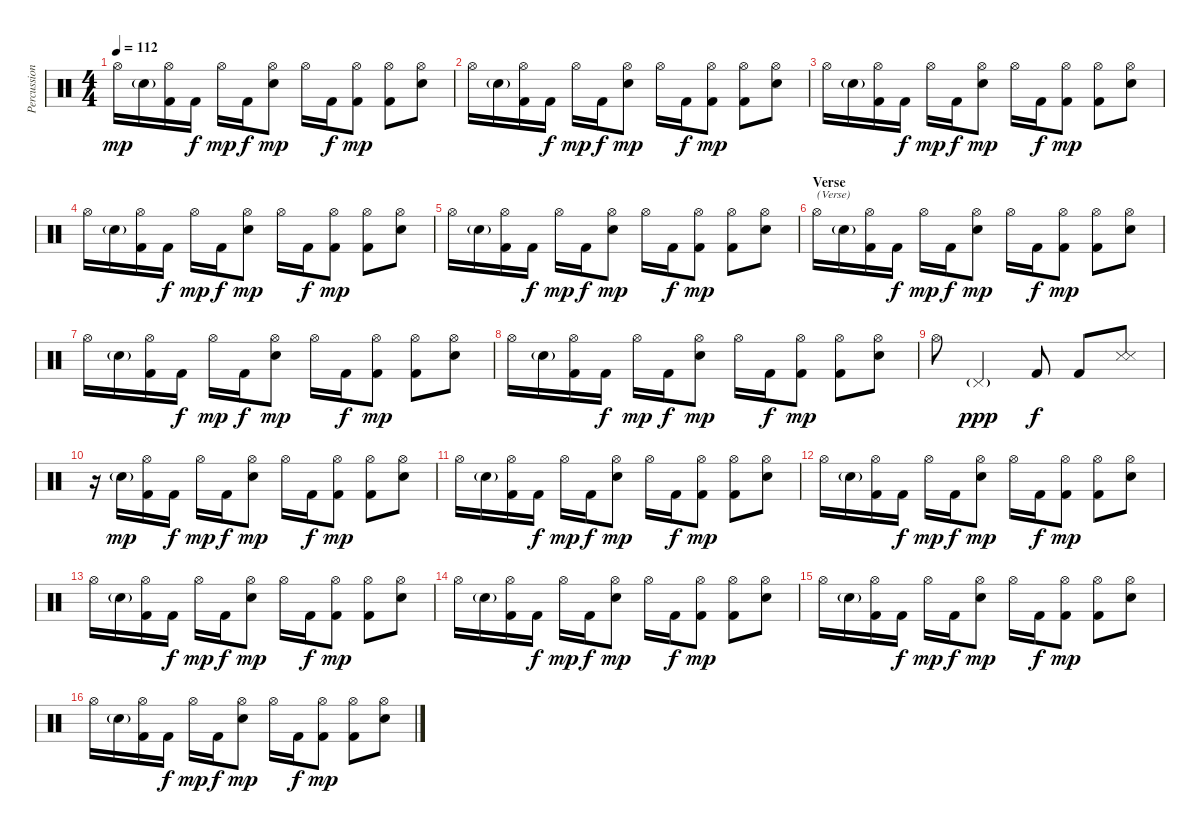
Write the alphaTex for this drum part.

\track ("Percussion" "Percussion") {instrument percussion}
\staff {score}
\articulation defaults
\ts (4 4)
\tempo 112
\clef neutral
\ks c "Hi-Hat (open)".16{dy mp} "Electric Snare (hit)"{g}.16
("Hi-Hat (open)" "Kick (hit) 2").16 "Kick (hit) 2".16{dy f} "Hi-Hat (open)".16{dy mp} "Kick (hit) 2".16{dy f} ("Hi-Hat (open)" "Electric Snare (hit)").8{dy mp} "Hi-Hat (open)".16 "Kick (hit) 2".16{dy f} ("Hi-Hat (open)" "Kick (hit) 2").8{dy mp} ("Hi-Hat (open)" "Kick (hit) 2").8 ("Hi-Hat (open)" "Electric Snare (hit)").8 |
"Hi-Hat (open)".16 "Electric Snare (hit)"{g}.16 ("Hi-Hat (open)" "Kick (hit) 2").16 "Kick (hit) 2".16{dy f} "Hi-Hat (open)".16{dy mp} "Kick (hit) 2".16{dy f} ("Hi-Hat (open)" "Electric Snare (hit)").8{dy mp} "Hi-Hat (open)".16 "Kick (hit) 2".16{dy f} ("Hi-Hat (open)" "Kick (hit) 2").8{dy mp} ("Hi-Hat (open)" "Kick (hit) 2").8 ("Hi-Hat (open)" "Electric Snare (hit)").8 |
"Hi-Hat (open)".16 "Electric Snare (hit)"{g}.16 ("Hi-Hat (open)" "Kick (hit) 2").16 "Kick (hit) 2".16{dy f} "Hi-Hat (open)".16{dy mp} "Kick (hit) 2".16{dy f} ("Hi-Hat (open)" "Electric Snare (hit)").8{dy mp} "Hi-Hat (open)".16 "Kick (hit) 2".16{dy f} ("Hi-Hat (open)" "Kick (hit) 2").8{dy mp} ("Hi-Hat (open)" "Kick (hit) 2").8 ("Hi-Hat (open)" "Electric Snare (hit)").8 |
"Hi-Hat (open)".16 "Electric Snare (hit)"{g}.16 ("Hi-Hat (open)" "Kick (hit) 2").16 "Kick (hit) 2".16{dy f} "Hi-Hat (open)".16{dy mp} "Kick (hit) 2".16{dy f} ("Hi-Hat (open)" "Electric Snare (hit)").8{dy mp} "Hi-Hat (open)".16 "Kick (hit) 2".16{dy f} ("Hi-Hat (open)" "Kick (hit) 2").8{dy mp} ("Hi-Hat (open)" "Kick (hit) 2").8 ("Hi-Hat (open)" "Electric Snare (hit)").8 |
"Hi-Hat (open)".16 "Electric Snare (hit)"{g}.16 ("Hi-Hat (open)" "Kick (hit) 2").16 "Kick (hit) 2".16{dy f} "Hi-Hat (open)".16{dy mp} "Kick (hit) 2".16{dy f} ("Hi-Hat (open)" "Electric Snare (hit)").8{dy mp} "Hi-Hat (open)".16 "Kick (hit) 2".16{dy f} ("Hi-Hat (open)" "Kick (hit) 2").8{dy mp} ("Hi-Hat (open)" "Kick (hit) 2").8 ("Hi-Hat (open)" "Electric Snare (hit)").8 |
\section ("" "Verse")
"Hi-Hat (open)".16{txt "(Verse)"} "Electric Snare (hit)"{g}.16 ("Hi-Hat (open)" "Kick (hit) 2").16 "Kick (hit) 2".16{dy f} "Hi-Hat (open)".16{dy mp} "Kick (hit) 2".16{dy f} ("Hi-Hat (open)" "Electric Snare (hit)").8{dy mp} "Hi-Hat (open)".16 "Kick (hit) 2".16{dy f} ("Hi-Hat (open)" "Kick (hit) 2").8{dy mp} ("Hi-Hat (open)" "Kick (hit) 2").8 ("Hi-Hat (open)" "Electric Snare (hit)").8 |
"Hi-Hat (open)".16 "Electric Snare (hit)"{g}.16 ("Hi-Hat (open)" "Kick (hit) 2").16 "Kick (hit) 2".16{dy f} "Hi-Hat (open)".16{dy mp} "Kick (hit) 2".16{dy f} ("Hi-Hat (open)" "Electric Snare (hit)").8{dy mp} "Hi-Hat (open)".16 "Kick (hit) 2".16{dy f} ("Hi-Hat (open)" "Kick (hit) 2").8{dy mp} ("Hi-Hat (open)" "Kick (hit) 2").8 ("Hi-Hat (open)" "Electric Snare (hit)").8 |
"Hi-Hat (open)".16 "Electric Snare (hit)"{g}.16 ("Hi-Hat (open)" "Kick (hit) 2").16 "Kick (hit) 2".16{dy f} "Hi-Hat (open)".16{dy mp} "Kick (hit) 2".16{dy f} ("Hi-Hat (open)" "Electric Snare (hit)").8{dy mp} "Hi-Hat (open)".16 "Kick (hit) 2".16{dy f} ("Hi-Hat (open)" "Kick (hit) 2").8{dy mp} ("Hi-Hat (open)" "Kick (hit) 2").8 ("Hi-Hat (open)" "Electric Snare (hit)").8 |
"Hi-Hat (open)".8 "Pedal Hi-Hat (hit)"{g}.2{dy ppp} "Kick (hit) 2".8{dy f} "Kick (hit) 2".8 ("Snare (side stick) 3" "Snare (side stick) 3").8{bd 60} |
r.16 "Electric Snare (hit)"{g}.16{dy mp} ("Hi-Hat (open)" "Kick (hit) 2").16 "Kick (hit) 2".16{dy f} "Hi-Hat (open)".16{dy mp} "Kick (hit) 2".16{dy f} ("Hi-Hat (open)" "Electric Snare (hit)").8{dy mp} "Hi-Hat (open)".16 "Kick (hit) 2".16{dy f} ("Hi-Hat (open)" "Kick (hit) 2").8{dy mp} ("Hi-Hat (open)" "Kick (hit) 2").8 ("Hi-Hat (open)" "Electric Snare (hit)").8 |
"Hi-Hat (open)".16 "Electric Snare (hit)"{g}.16 ("Hi-Hat (open)" "Kick (hit) 2").16 "Kick (hit) 2".16{dy f} "Hi-Hat (open)".16{dy mp} "Kick (hit) 2".16{dy f} ("Hi-Hat (open)" "Electric Snare (hit)").8{dy mp} "Hi-Hat (open)".16 "Kick (hit) 2".16{dy f} ("Hi-Hat (open)" "Kick (hit) 2").8{dy mp} ("Hi-Hat (open)" "Kick (hit) 2").8 ("Hi-Hat (open)" "Electric Snare (hit)").8 |
"Hi-Hat (open)".16 "Electric Snare (hit)"{g}.16 ("Hi-Hat (open)" "Kick (hit) 2").16 "Kick (hit) 2".16{dy f} "Hi-Hat (open)".16{dy mp} "Kick (hit) 2".16{dy f} ("Hi-Hat (open)" "Electric Snare (hit)").8{dy mp} "Hi-Hat (open)".16 "Kick (hit) 2".16{dy f} ("Hi-Hat (open)" "Kick (hit) 2").8{dy mp} ("Hi-Hat (open)" "Kick (hit) 2").8 ("Hi-Hat (open)" "Electric Snare (hit)").8 |
"Hi-Hat (open)".16 "Electric Snare (hit)"{g}.16 ("Hi-Hat (open)" "Kick (hit) 2").16 "Kick (hit) 2".16{dy f} "Hi-Hat (open)".16{dy mp} "Kick (hit) 2".16{dy f} ("Hi-Hat (open)" "Electric Snare (hit)").8{dy mp} "Hi-Hat (open)".16 "Kick (hit) 2".16{dy f} ("Hi-Hat (open)" "Kick (hit) 2").8{dy mp} ("Hi-Hat (open)" "Kick (hit) 2").8 ("Hi-Hat (open)" "Electric Snare (hit)").8 |
"Hi-Hat (open)".16 "Electric Snare (hit)"{g}.16 ("Hi-Hat (open)" "Kick (hit) 2").16 "Kick (hit) 2".16{dy f} "Hi-Hat (open)".16{dy mp} "Kick (hit) 2".16{dy f} ("Hi-Hat (open)" "Electric Snare (hit)").8{dy mp} "Hi-Hat (open)".16 "Kick (hit) 2".16{dy f} ("Hi-Hat (open)" "Kick (hit) 2").8{dy mp} ("Hi-Hat (open)" "Kick (hit) 2").8 ("Hi-Hat (open)" "Electric Snare (hit)").8 |
"Hi-Hat (open)".16 "Electric Snare (hit)"{g}.16 ("Hi-Hat (open)" "Kick (hit) 2").16 "Kick (hit) 2".16{dy f} "Hi-Hat (open)".16{dy mp} "Kick (hit) 2".16{dy f} ("Hi-Hat (open)" "Electric Snare (hit)").8{dy mp} "Hi-Hat (open)".16 "Kick (hit) 2".16{dy f} ("Hi-Hat (open)" "Kick (hit) 2").8{dy mp} ("Hi-Hat (open)" "Kick (hit) 2").8 ("Hi-Hat (open)" "Electric Snare (hit)").8 |
"Hi-Hat (open)".16 "Electric Snare (hit)"{g}.16 ("Hi-Hat (open)" "Kick (hit) 2").16 "Kick (hit) 2".16{dy f} "Hi-Hat (open)".16{dy mp} "Kick (hit) 2".16{dy f} ("Hi-Hat (open)" "Electric Snare (hit)").8{dy mp} "Hi-Hat (open)".16 "Kick (hit) 2".16{dy f} ("Hi-Hat (open)" "Kick (hit) 2").8{dy mp} ("Hi-Hat (open)" "Kick (hit) 2").8 ("Hi-Hat (open)" "Electric Snare (hit)").8
